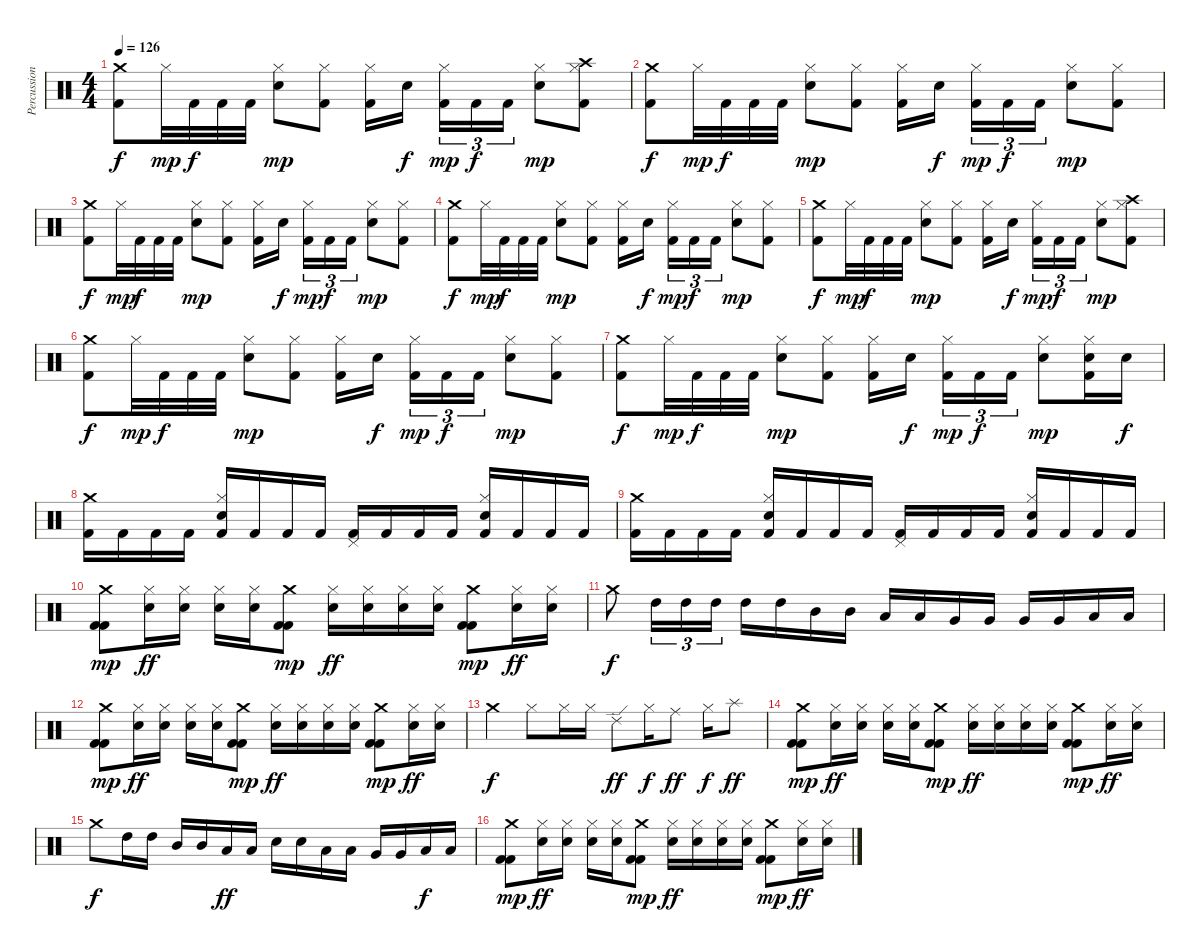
\track ("Percussion" "Percussion") {instrument percussion}
\staff {score}
\articulation defaults
\ts (4 4)
\tempo 126
\clef neutral
\ks c
("Crash medium (hit)" "Kick (hit) 2").8{dy f} "Hi-Hat (closed)".32{dy mp} "Kick (hit) 2".32{dy f} "Kick (hit) 2".32 "Kick (hit) 2".32 ("Electric Snare (hit)" "Hi-Hat (closed)").8{dy mp} ("Kick (hit) 2" "Hi-Hat (closed)").8 ("Kick (hit) 2" "Hi-Hat (closed)").16 "Electric Snare (hit)".16{dy f beam splitsecondary} ("Kick (hit) 2" "Hi-Hat (closed)").16{tu (3 2) dy mp} "Kick (hit) 2".16{tu (3 2) dy f} "Kick (hit) 2".16{tu (3 2)} ("Electric Snare (hit)" "Hi-Hat (closed)").8{dy mp} ("Crash high (hit)" "Kick (hit) 2" "Hi-Hat (closed)").8 |
("Crash medium (hit)" "Kick (hit) 2").8{dy f} "Hi-Hat (closed)".32{dy mp} "Kick (hit) 2".32{dy f} "Kick (hit) 2".32 "Kick (hit) 2".32 ("Electric Snare (hit)" "Hi-Hat (closed)").8{dy mp} ("Kick (hit) 2" "Hi-Hat (closed)").8 ("Kick (hit) 2" "Hi-Hat (closed)").16 "Electric Snare (hit)".16{dy f beam splitsecondary} ("Kick (hit) 2" "Hi-Hat (closed)").16{tu (3 2) dy mp} "Kick (hit) 2".16{tu (3 2) dy f} "Kick (hit) 2".16{tu (3 2)} ("Electric Snare (hit)" "Hi-Hat (closed)").8{dy mp} ("Kick (hit) 2" "Hi-Hat (closed)").8 |
("Crash medium (hit)" "Kick (hit) 2").8{dy f} "Hi-Hat (closed)".32{dy mp} "Kick (hit) 2".32{dy f} "Kick (hit) 2".32 "Kick (hit) 2".32 ("Electric Snare (hit)" "Hi-Hat (closed)").8{dy mp} ("Kick (hit) 2" "Hi-Hat (closed)").8 ("Kick (hit) 2" "Hi-Hat (closed)").16 "Electric Snare (hit)".16{dy f beam splitsecondary} ("Kick (hit) 2" "Hi-Hat (closed)").16{tu (3 2) dy mp} "Kick (hit) 2".16{tu (3 2) dy f} "Kick (hit) 2".16{tu (3 2)} ("Electric Snare (hit)" "Hi-Hat (closed)").8{dy mp} ("Kick (hit) 2" "Hi-Hat (closed)").8 |
("Crash medium (hit)" "Kick (hit) 2").8{dy f} "Hi-Hat (closed)".32{dy mp} "Kick (hit) 2".32{dy f} "Kick (hit) 2".32 "Kick (hit) 2".32 ("Electric Snare (hit)" "Hi-Hat (closed)").8{dy mp} ("Kick (hit) 2" "Hi-Hat (closed)").8 ("Kick (hit) 2" "Hi-Hat (closed)").16 "Electric Snare (hit)".16{dy f beam splitsecondary} ("Kick (hit) 2" "Hi-Hat (closed)").16{tu (3 2) dy mp} "Kick (hit) 2".16{tu (3 2) dy f} "Kick (hit) 2".16{tu (3 2)} ("Electric Snare (hit)" "Hi-Hat (closed)").8{dy mp} ("Kick (hit) 2" "Hi-Hat (closed)").8 |
("Crash medium (hit)" "Kick (hit) 2").8{dy f} "Hi-Hat (closed)".32{dy mp} "Kick (hit) 2".32{dy f} "Kick (hit) 2".32 "Kick (hit) 2".32 ("Electric Snare (hit)" "Hi-Hat (closed)").8{dy mp} ("Kick (hit) 2" "Hi-Hat (closed)").8 ("Kick (hit) 2" "Hi-Hat (closed)").16 "Electric Snare (hit)".16{dy f beam splitsecondary} ("Kick (hit) 2" "Hi-Hat (closed)").16{tu (3 2) dy mp} "Kick (hit) 2".16{tu (3 2) dy f} "Kick (hit) 2".16{tu (3 2)} ("Electric Snare (hit)" "Hi-Hat (closed)").8{dy mp} ("Crash high (hit)" "Kick (hit) 2" "Hi-Hat (closed)").8 |
("Crash medium (hit)" "Kick (hit) 2").8{dy f} "Hi-Hat (closed)".32{dy mp} "Kick (hit) 2".32{dy f} "Kick (hit) 2".32 "Kick (hit) 2".32 ("Electric Snare (hit)" "Hi-Hat (closed)").8{dy mp} ("Kick (hit) 2" "Hi-Hat (closed)").8 ("Kick (hit) 2" "Hi-Hat (closed)").16 "Electric Snare (hit)".16{dy f beam splitsecondary} ("Kick (hit) 2" "Hi-Hat (closed)").16{tu (3 2) dy mp} "Kick (hit) 2".16{tu (3 2) dy f} "Kick (hit) 2".16{tu (3 2)} ("Electric Snare (hit)" "Hi-Hat (closed)").8{dy mp} ("Kick (hit) 2" "Hi-Hat (closed)").8 |
("Crash medium (hit)" "Kick (hit) 2").8{dy f} "Hi-Hat (closed)".32{dy mp} "Kick (hit) 2".32{dy f} "Kick (hit) 2".32 "Kick (hit) 2".32 ("Electric Snare (hit)" "Hi-Hat (closed)").8{dy mp} ("Kick (hit) 2" "Hi-Hat (closed)").8 ("Kick (hit) 2" "Hi-Hat (closed)").16 "Electric Snare (hit)".16{dy f beam splitsecondary} ("Kick (hit) 2" "Hi-Hat (closed)").16{tu (3 2) dy mp} "Kick (hit) 2".16{tu (3 2) dy f} "Kick (hit) 2".16{tu (3 2)} ("Electric Snare (hit)" "Hi-Hat (closed)").8{dy mp} ("Electric Snare (hit)" "Kick (hit) 2" "Hi-Hat (closed)").16 "Electric Snare (hit)".16{dy f} |
("Crash medium (hit)" "Kick (hit) 2").16 "Kick (hit) 2".16 "Kick (hit) 2".16 "Kick (hit) 2".16 ("Hi-Hat (closed)" "Electric Snare (hit)" "Kick (hit) 2").16 "Kick (hit) 2".16 "Kick (hit) 2".16 "Kick (hit) 2".16 ("Pedal Hi-Hat (hit)" "Kick (hit) 2").16 "Kick (hit) 2".16 "Kick (hit) 2".16 "Kick (hit) 2".16 ("Hi-Hat (closed)" "Electric Snare (hit)" "Kick (hit) 2").16 "Kick (hit) 2".16 "Kick (hit) 2".16 "Kick (hit) 2".16 |
("Crash medium (hit)" "Kick (hit) 2").16 "Kick (hit) 2".16 "Kick (hit) 2".16 "Kick (hit) 2".16 ("Hi-Hat (closed)" "Electric Snare (hit)" "Kick (hit) 2").16 "Kick (hit) 2".16 "Kick (hit) 2".16 "Kick (hit) 2".16 ("Pedal Hi-Hat (hit)" "Kick (hit) 2").16 "Kick (hit) 2".16 "Kick (hit) 2".16 "Kick (hit) 2".16 ("Hi-Hat (closed)" "Electric Snare (hit)" "Kick (hit) 2").16 "Kick (hit) 2".16 "Kick (hit) 2".16 "Kick (hit) 2".16 |
("Crash medium (hit)" "Kick (hit) 2" "Kick (hit) 2").8{dy mp} ("Hi-Hat (closed)" "Electric Snare (hit)").16{dy ff} ("Hi-Hat (closed)" "Electric Snare (hit)").16 ("Hi-Hat (closed)" "Electric Snare (hit)").16 ("Hi-Hat (closed)" "Electric Snare (hit)").16 ("Crash medium (hit)" "Kick (hit) 2" "Kick (hit) 2").8{dy mp} ("Hi-Hat (closed)" "Electric Snare (hit)").16{dy ff} ("Hi-Hat (closed)" "Electric Snare (hit)").16 ("Hi-Hat (closed)" "Electric Snare (hit)").16 ("Hi-Hat (closed)" "Electric Snare (hit)").16 ("Crash medium (hit)" "Kick (hit) 2" "Kick (hit) 2").8{dy mp} ("Hi-Hat (closed)" "Electric Snare (hit)").16{dy ff} ("Hi-Hat (closed)" "Electric Snare (hit)").16 |
"Crash medium (hit)".8{dy f} "High Tom (hit)".16{tu (3 2)} "High Tom (hit)".16{tu (3 2)} "High Tom (hit)".16{tu (3 2)} "High Tom (hit)".16 "High Tom (hit)".16 "Mid Tom (hit)".16 "Mid Tom (hit)".16 "Low Tom (hit)".16 "Low Tom (hit)".16 "Very Low Tom (hit)".16 "Very Low Tom (hit)".16 "Very Low Tom (hit)".16 "Very Low Tom (hit)".16 "Low Floor Tom (hit)".16 "Low Floor Tom (hit)".16 |
("Crash medium (hit)" "Kick (hit) 2" "Kick (hit) 2").8{dy mp} ("Hi-Hat (closed)" "Electric Snare (hit)").16{dy ff} ("Hi-Hat (closed)" "Electric Snare (hit)").16 ("Hi-Hat (closed)" "Electric Snare (hit)").16 ("Hi-Hat (closed)" "Electric Snare (hit)").16 ("Crash medium (hit)" "Kick (hit) 2" "Kick (hit) 2").8{dy mp} ("Hi-Hat (closed)" "Electric Snare (hit)").16{dy ff} ("Hi-Hat (closed)" "Electric Snare (hit)").16 ("Hi-Hat (closed)" "Electric Snare (hit)").16 ("Hi-Hat (closed)" "Electric Snare (hit)").16 ("Crash medium (hit)" "Kick (hit) 2" "Kick (hit) 2").8{dy mp} ("Hi-Hat (closed)" "Electric Snare (hit)").16{dy ff} ("Hi-Hat (closed)" "Electric Snare (hit)").16 |
"Crash medium (hit)".4{dy f} "Hi-Hat (closed)".8 "Hi-Hat (closed)".16 "Hi-Hat (closed)".16 "Ride (edge) 2".8{dy ff} "Hi-Hat (closed)".16{dy f} "Ride (middle)".8{dy ff} "Hi-Hat (closed)".16{dy f} "Splash (hit)".8{dy ff} |
("Crash medium (hit)" "Kick (hit) 2" "Kick (hit) 2").8{dy mp} ("Hi-Hat (closed)" "Electric Snare (hit)").16{dy ff} ("Hi-Hat (closed)" "Electric Snare (hit)").16 ("Hi-Hat (closed)" "Electric Snare (hit)").16 ("Hi-Hat (closed)" "Electric Snare (hit)").16 ("Crash medium (hit)" "Kick (hit) 2" "Kick (hit) 2").8{dy mp} ("Hi-Hat (closed)" "Electric Snare (hit)").16{dy ff} ("Hi-Hat (closed)" "Electric Snare (hit)").16 ("Hi-Hat (closed)" "Electric Snare (hit)").16 ("Hi-Hat (closed)" "Electric Snare (hit)").16 ("Crash medium (hit)" "Kick (hit) 2" "Kick (hit) 2").8{dy mp} ("Hi-Hat (closed)" "Electric Snare (hit)").16{dy ff} ("Hi-Hat (closed)" "Electric Snare (hit)").16 |
"Crash medium (hit)".8{dy f} "High Tom (hit)".16 "High Tom (hit)".16 "Mid Tom (hit)".16 "Mid Tom (hit)".16 "Low Tom (hit)".16{dy ff} "Low Tom (hit)".16 "Electric Snare (hit)".16 "Electric Snare (hit)".16 "Low Tom (hit)".16 "Low Tom (hit)".16 "Very Low Tom (hit)".16 "Very Low Tom (hit)".16 "Low Floor Tom (hit)".16{dy f} "Low Floor Tom (hit)".16 |
("Crash medium (hit)" "Kick (hit) 2" "Kick (hit) 2").8{dy mp} ("Hi-Hat (closed)" "Electric Snare (hit)").16{dy ff} ("Hi-Hat (closed)" "Electric Snare (hit)").16 ("Hi-Hat (closed)" "Electric Snare (hit)").16 ("Hi-Hat (closed)" "Electric Snare (hit)").16 ("Crash medium (hit)" "Kick (hit) 2" "Kick (hit) 2").8{dy mp} ("Hi-Hat (closed)" "Electric Snare (hit)").16{dy ff} ("Hi-Hat (closed)" "Electric Snare (hit)").16 ("Hi-Hat (closed)" "Electric Snare (hit)").16 ("Hi-Hat (closed)" "Electric Snare (hit)").16 ("Crash medium (hit)" "Kick (hit) 2" "Kick (hit) 2").8{dy mp} ("Hi-Hat (closed)" "Electric Snare (hit)").16{dy ff} ("Hi-Hat (closed)" "Electric Snare (hit)").16
